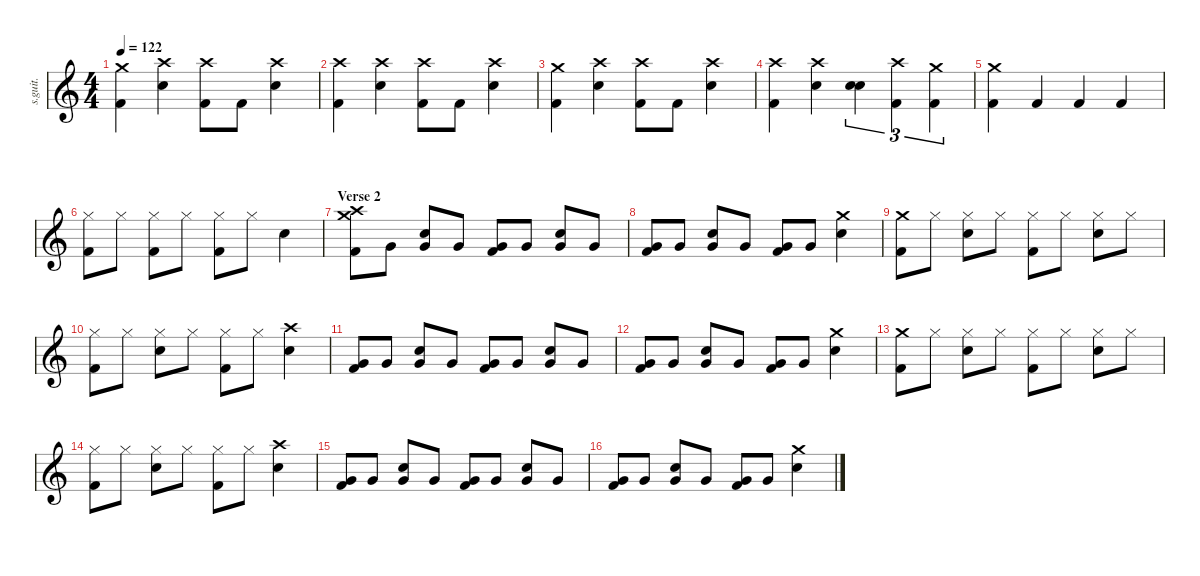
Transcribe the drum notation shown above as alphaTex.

\defaultSystemsLayout 4
\hideDynamics
\bracketExtendMode nobrackets
\track ("Neil Sanderson" "s.guit.") {instrument percussion}
\staff {score}
\articulation defaults
\ts (4 4)
\tempo 122
\clef g2
\ks c
("Crash medium (hit)" "Kick (hit) 2").4{lyrics (0 "") lyrics (1 "") lyrics (2 "") lyrics (3 "") lyrics (4 "") dy f} ("Crash high (hit)" "Snare (hit) 2").4{lyrics (0 "") lyrics (1 "") lyrics (2 "") lyrics (3 "") lyrics (4 "")} ("Crash high (hit)" "Kick (hit) 2").8{lyrics (0 "") lyrics (1 "") lyrics (2 "") lyrics (3 "") lyrics (4 "")} "Kick (hit) 2".8{lyrics (0 "") lyrics (1 "") lyrics (2 "") lyrics (3 "") lyrics (4 "")} ("Crash high (hit)" "Snare (hit) 2").4{lyrics (0 "") lyrics (1 "") lyrics (2 "") lyrics (3 "") lyrics (4 "")} |
("Crash high (hit)" "Kick (hit) 2").4{lyrics (0 "") lyrics (1 "") lyrics (2 "") lyrics (3 "") lyrics (4 "")} ("Crash high (hit)" "Snare (hit) 2").4{lyrics (0 "") lyrics (1 "") lyrics (2 "") lyrics (3 "") lyrics (4 "")} ("Crash high (hit)" "Kick (hit) 2").8{lyrics (0 "") lyrics (1 "") lyrics (2 "") lyrics (3 "") lyrics (4 "")} "Kick (hit) 2".8{lyrics (0 "") lyrics (1 "") lyrics (2 "") lyrics (3 "") lyrics (4 "")} ("Crash high (hit)" "Snare (hit) 2").4{lyrics (0 "") lyrics (1 "") lyrics (2 "") lyrics (3 "") lyrics (4 "")} |
("Crash medium (hit)" "Kick (hit) 2").4{lyrics (0 "") lyrics (1 "") lyrics (2 "") lyrics (3 "") lyrics (4 "")} ("Crash high (hit)" "Snare (hit) 2").4{lyrics (0 "") lyrics (1 "") lyrics (2 "") lyrics (3 "") lyrics (4 "")} ("Crash high (hit)" "Kick (hit) 2").8{lyrics (0 "") lyrics (1 "") lyrics (2 "") lyrics (3 "") lyrics (4 "")} "Kick (hit) 2".8{lyrics (0 "") lyrics (1 "") lyrics (2 "") lyrics (3 "") lyrics (4 "")} ("Crash high (hit)" "Snare (hit) 2").4{lyrics (0 "") lyrics (1 "") lyrics (2 "") lyrics (3 "") lyrics (4 "")} |
("Crash high (hit)" "Kick (hit) 2").4{lyrics (0 "") lyrics (1 "") lyrics (2 "") lyrics (3 "") lyrics (4 "")} ("Crash high (hit)" "Snare (hit) 2").4{lyrics (0 "") lyrics (1 "") lyrics (2 "") lyrics (3 "") lyrics (4 "")} ("Snare (hit) 2" "Snare (hit) 2").4{tu (3 2) bd 30 lyrics (0 "") lyrics (1 "") lyrics (2 "") lyrics (3 "") lyrics (4 "")} ("Crash high (hit)" "Kick (hit) 2").4{tu (3 2) lyrics (0 "") lyrics (1 "") lyrics (2 "") lyrics (3 "") lyrics (4 "")} ("Crash medium (hit)" "Kick (hit) 2").4{tu (3 2) lyrics (0 "") lyrics (1 "") lyrics (2 "") lyrics (3 "") lyrics (4 "")} |
("Crash medium (hit)" "Kick (hit) 2").4{lyrics (0 "") lyrics (1 "") lyrics (2 "") lyrics (3 "") lyrics (4 "")} "Kick (hit) 2".4{lyrics (0 "") lyrics (1 "") lyrics (2 "") lyrics (3 "") lyrics (4 "")} "Kick (hit) 2".4{lyrics (0 "") lyrics (1 "") lyrics (2 "") lyrics (3 "") lyrics (4 "")} "Kick (hit) 2".4{lyrics (0 "") lyrics (1 "") lyrics (2 "") lyrics (3 "") lyrics (4 "")} |
("Hi-Hat (closed)" "Kick (hit) 2").8{lyrics (0 "") lyrics (1 "") lyrics (2 "") lyrics (3 "") lyrics (4 "")} "Hi-Hat (closed)".8{lyrics (0 "") lyrics (1 "") lyrics (2 "") lyrics (3 "") lyrics (4 "")} ("Hi-Hat (closed)" "Kick (hit) 2").8{lyrics (0 "") lyrics (1 "") lyrics (2 "") lyrics (3 "") lyrics (4 "")} "Hi-Hat (closed)".8{lyrics (0 "") lyrics (1 "") lyrics (2 "") lyrics (3 "") lyrics (4 "")} ("Hi-Hat (closed)" "Kick (hit) 2").8{lyrics (0 "") lyrics (1 "") lyrics (2 "") lyrics (3 "") lyrics (4 "")} "Hi-Hat (closed)".8{lyrics (0 "") lyrics (1 "") lyrics (2 "") lyrics (3 "") lyrics (4 "")} "Snare (hit) 2".4{lyrics (0 "") lyrics (1 "") lyrics (2 "") lyrics (3 "") lyrics (4 "")} |
\section ("" "Verse 2")
("Crash high (hit)" "Crash medium (hit)" "Kick (hit) 2").8{lyrics (0 "") lyrics (1 "") lyrics (2 "") lyrics (3 "") lyrics (4 "")} "Very Low Tom (hit)".8{lyrics (0 "") lyrics (1 "") lyrics (2 "") lyrics (3 "") lyrics (4 "")} ("Snare (hit) 2" "Very Low Tom (hit)").8{lyrics (0 "") lyrics (1 "") lyrics (2 "") lyrics (3 "") lyrics (4 "")} "Very Low Tom (hit)".8{lyrics (0 "") lyrics (1 "") lyrics (2 "") lyrics (3 "") lyrics (4 "")} ("Very Low Tom (hit)" "Kick (hit) 2").8{lyrics (0 "") lyrics (1 "") lyrics (2 "") lyrics (3 "") lyrics (4 "")} "Very Low Tom (hit)".8{lyrics (0 "") lyrics (1 "") lyrics (2 "") lyrics (3 "") lyrics (4 "")} ("Snare (hit) 2" "Very Low Tom (hit)").8{lyrics (0 "") lyrics (1 "") lyrics (2 "") lyrics (3 "") lyrics (4 "")} "Very Low Tom (hit)".8{lyrics (0 "") lyrics (1 "") lyrics (2 "") lyrics (3 "") lyrics (4 "")} |
("Very Low Tom (hit)" "Kick (hit) 2").8{lyrics (0 "") lyrics (1 "") lyrics (2 "") lyrics (3 "") lyrics (4 "")} "Very Low Tom (hit)".8{lyrics (0 "") lyrics (1 "") lyrics (2 "") lyrics (3 "") lyrics (4 "")} ("Snare (hit) 2" "Very Low Tom (hit)").8{lyrics (0 "") lyrics (1 "") lyrics (2 "") lyrics (3 "") lyrics (4 "")} "Very Low Tom (hit)".8{lyrics (0 "") lyrics (1 "") lyrics (2 "") lyrics (3 "") lyrics (4 "")} ("Very Low Tom (hit)" "Kick (hit) 2").8{lyrics (0 "") lyrics (1 "") lyrics (2 "") lyrics (3 "") lyrics (4 "")} "Very Low Tom (hit)".8{lyrics (0 "") lyrics (1 "") lyrics (2 "") lyrics (3 "") lyrics (4 "")} ("Crash medium (hit)" "Snare (hit) 2").4{lyrics (0 "") lyrics (1 "") lyrics (2 "") lyrics (3 "") lyrics (4 "")} |
("Crash medium (hit)" "Kick (hit) 2").8{lyrics (0 "") lyrics (1 "") lyrics (2 "") lyrics (3 "") lyrics (4 "")} "Hi-Hat (closed)".8{lyrics (0 "") lyrics (1 "") lyrics (2 "") lyrics (3 "") lyrics (4 "")} ("Hi-Hat (closed)" "Snare (hit) 2").8{lyrics (0 "") lyrics (1 "") lyrics (2 "") lyrics (3 "") lyrics (4 "")} "Hi-Hat (closed)".8{lyrics (0 "") lyrics (1 "") lyrics (2 "") lyrics (3 "") lyrics (4 "")} ("Hi-Hat (closed)" "Kick (hit) 2").8{lyrics (0 "") lyrics (1 "") lyrics (2 "") lyrics (3 "") lyrics (4 "")} "Hi-Hat (closed)".8{lyrics (0 "") lyrics (1 "") lyrics (2 "") lyrics (3 "") lyrics (4 "")} ("Hi-Hat (closed)" "Snare (hit) 2").8{lyrics (0 "") lyrics (1 "") lyrics (2 "") lyrics (3 "") lyrics (4 "")} "Hi-Hat (closed)".8{lyrics (0 "") lyrics (1 "") lyrics (2 "") lyrics (3 "") lyrics (4 "")} |
("Hi-Hat (closed)" "Kick (hit) 2").8{lyrics (0 "") lyrics (1 "") lyrics (2 "") lyrics (3 "") lyrics (4 "")} "Hi-Hat (closed)".8{lyrics (0 "") lyrics (1 "") lyrics (2 "") lyrics (3 "") lyrics (4 "")} ("Hi-Hat (closed)" "Snare (hit) 2").8{lyrics (0 "") lyrics (1 "") lyrics (2 "") lyrics (3 "") lyrics (4 "")} "Hi-Hat (closed)".8{lyrics (0 "") lyrics (1 "") lyrics (2 "") lyrics (3 "") lyrics (4 "")} ("Hi-Hat (closed)" "Kick (hit) 2").8{lyrics (0 "") lyrics (1 "") lyrics (2 "") lyrics (3 "") lyrics (4 "")} "Hi-Hat (closed)".8{lyrics (0 "") lyrics (1 "") lyrics (2 "") lyrics (3 "") lyrics (4 "")} ("Crash high (hit)" "Snare (hit) 2").4{lyrics (0 "") lyrics (1 "") lyrics (2 "") lyrics (3 "") lyrics (4 "")} |
("Very Low Tom (hit)" "Kick (hit) 2").8{lyrics (0 "") lyrics (1 "") lyrics (2 "") lyrics (3 "") lyrics (4 "")} "Very Low Tom (hit)".8{lyrics (0 "") lyrics (1 "") lyrics (2 "") lyrics (3 "") lyrics (4 "")} ("Snare (hit) 2" "Very Low Tom (hit)").8{lyrics (0 "") lyrics (1 "") lyrics (2 "") lyrics (3 "") lyrics (4 "")} "Very Low Tom (hit)".8{lyrics (0 "") lyrics (1 "") lyrics (2 "") lyrics (3 "") lyrics (4 "")} ("Very Low Tom (hit)" "Kick (hit) 2").8{lyrics (0 "") lyrics (1 "") lyrics (2 "") lyrics (3 "") lyrics (4 "")} "Very Low Tom (hit)".8{lyrics (0 "") lyrics (1 "") lyrics (2 "") lyrics (3 "") lyrics (4 "")} ("Snare (hit) 2" "Very Low Tom (hit)").8{lyrics (0 "") lyrics (1 "") lyrics (2 "") lyrics (3 "") lyrics (4 "")} "Very Low Tom (hit)".8{lyrics (0 "") lyrics (1 "") lyrics (2 "") lyrics (3 "") lyrics (4 "")} |
("Very Low Tom (hit)" "Kick (hit) 2").8{lyrics (0 "") lyrics (1 "") lyrics (2 "") lyrics (3 "") lyrics (4 "")} "Very Low Tom (hit)".8{lyrics (0 "") lyrics (1 "") lyrics (2 "") lyrics (3 "") lyrics (4 "")} ("Snare (hit) 2" "Very Low Tom (hit)").8{lyrics (0 "") lyrics (1 "") lyrics (2 "") lyrics (3 "") lyrics (4 "")} "Very Low Tom (hit)".8{lyrics (0 "") lyrics (1 "") lyrics (2 "") lyrics (3 "") lyrics (4 "")} ("Very Low Tom (hit)" "Kick (hit) 2").8{lyrics (0 "") lyrics (1 "") lyrics (2 "") lyrics (3 "") lyrics (4 "")} "Very Low Tom (hit)".8{lyrics (0 "") lyrics (1 "") lyrics (2 "") lyrics (3 "") lyrics (4 "")} ("Crash medium (hit)" "Snare (hit) 2").4{lyrics (0 "") lyrics (1 "") lyrics (2 "") lyrics (3 "") lyrics (4 "")} |
("Crash medium (hit)" "Kick (hit) 2").8{lyrics (0 "") lyrics (1 "") lyrics (2 "") lyrics (3 "") lyrics (4 "")} "Hi-Hat (closed)".8{lyrics (0 "") lyrics (1 "") lyrics (2 "") lyrics (3 "") lyrics (4 "")} ("Hi-Hat (closed)" "Snare (hit) 2").8{lyrics (0 "") lyrics (1 "") lyrics (2 "") lyrics (3 "") lyrics (4 "")} "Hi-Hat (closed)".8{lyrics (0 "") lyrics (1 "") lyrics (2 "") lyrics (3 "") lyrics (4 "")} ("Hi-Hat (closed)" "Kick (hit) 2").8{lyrics (0 "") lyrics (1 "") lyrics (2 "") lyrics (3 "") lyrics (4 "")} "Hi-Hat (closed)".8{lyrics (0 "") lyrics (1 "") lyrics (2 "") lyrics (3 "") lyrics (4 "")} ("Hi-Hat (closed)" "Snare (hit) 2").8{lyrics (0 "") lyrics (1 "") lyrics (2 "") lyrics (3 "") lyrics (4 "")} "Hi-Hat (closed)".8{lyrics (0 "") lyrics (1 "") lyrics (2 "") lyrics (3 "") lyrics (4 "")} |
("Hi-Hat (closed)" "Kick (hit) 2").8{lyrics (0 "") lyrics (1 "") lyrics (2 "") lyrics (3 "") lyrics (4 "")} "Hi-Hat (closed)".8{lyrics (0 "") lyrics (1 "") lyrics (2 "") lyrics (3 "") lyrics (4 "")} ("Hi-Hat (closed)" "Snare (hit) 2").8{lyrics (0 "") lyrics (1 "") lyrics (2 "") lyrics (3 "") lyrics (4 "")} "Hi-Hat (closed)".8{lyrics (0 "") lyrics (1 "") lyrics (2 "") lyrics (3 "") lyrics (4 "")} ("Hi-Hat (closed)" "Kick (hit) 2").8{lyrics (0 "") lyrics (1 "") lyrics (2 "") lyrics (3 "") lyrics (4 "")} "Hi-Hat (closed)".8{lyrics (0 "") lyrics (1 "") lyrics (2 "") lyrics (3 "") lyrics (4 "")} ("Crash high (hit)" "Snare (hit) 2").4{lyrics (0 "") lyrics (1 "") lyrics (2 "") lyrics (3 "") lyrics (4 "")} |
("Very Low Tom (hit)" "Kick (hit) 2").8{lyrics (0 "") lyrics (1 "") lyrics (2 "") lyrics (3 "") lyrics (4 "")} "Very Low Tom (hit)".8{lyrics (0 "") lyrics (1 "") lyrics (2 "") lyrics (3 "") lyrics (4 "")} ("Snare (hit) 2" "Very Low Tom (hit)").8{lyrics (0 "") lyrics (1 "") lyrics (2 "") lyrics (3 "") lyrics (4 "")} "Very Low Tom (hit)".8{lyrics (0 "") lyrics (1 "") lyrics (2 "") lyrics (3 "") lyrics (4 "")} ("Very Low Tom (hit)" "Kick (hit) 2").8{lyrics (0 "") lyrics (1 "") lyrics (2 "") lyrics (3 "") lyrics (4 "")} "Very Low Tom (hit)".8{lyrics (0 "") lyrics (1 "") lyrics (2 "") lyrics (3 "") lyrics (4 "")} ("Snare (hit) 2" "Very Low Tom (hit)").8{lyrics (0 "") lyrics (1 "") lyrics (2 "") lyrics (3 "") lyrics (4 "")} "Very Low Tom (hit)".8{lyrics (0 "") lyrics (1 "") lyrics (2 "") lyrics (3 "") lyrics (4 "")} |
("Very Low Tom (hit)" "Kick (hit) 2").8{lyrics (0 "") lyrics (1 "") lyrics (2 "") lyrics (3 "") lyrics (4 "")} "Very Low Tom (hit)".8{lyrics (0 "") lyrics (1 "") lyrics (2 "") lyrics (3 "") lyrics (4 "")} ("Snare (hit) 2" "Very Low Tom (hit)").8{lyrics (0 "") lyrics (1 "") lyrics (2 "") lyrics (3 "") lyrics (4 "")} "Very Low Tom (hit)".8{lyrics (0 "") lyrics (1 "") lyrics (2 "") lyrics (3 "") lyrics (4 "")} ("Very Low Tom (hit)" "Kick (hit) 2").8{lyrics (0 "") lyrics (1 "") lyrics (2 "") lyrics (3 "") lyrics (4 "")} "Very Low Tom (hit)".8{lyrics (0 "") lyrics (1 "") lyrics (2 "") lyrics (3 "") lyrics (4 "")} ("Crash medium (hit)" "Snare (hit) 2").4{lyrics (0 "") lyrics (1 "") lyrics (2 "") lyrics (3 "") lyrics (4 "")}
